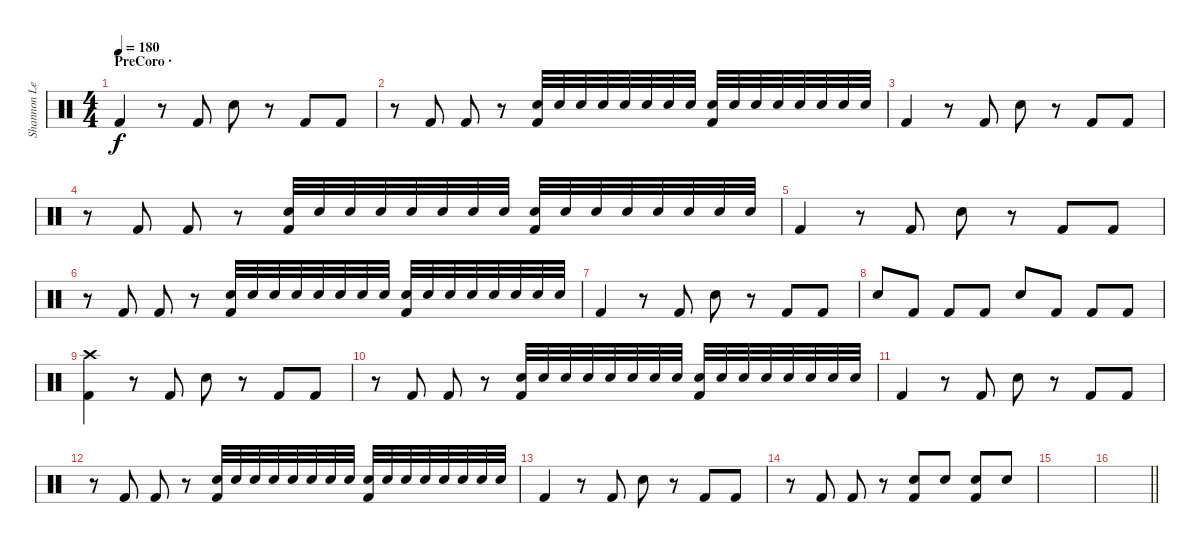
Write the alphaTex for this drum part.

\track ("Shannon Leto" "Shannon Le") {instrument percussion}
\staff {score}
\articulation defaults
\ts (4 4)
\section ("" "PreCoro ·")
\tempo 180
\clef neutral
\ks c "Kick (hit) 2".4{dy f}
r.8 "Kick (hit) 2".8 "Snare (hit) 2".8 r.8 "Kick (hit) 2".8 "Kick (hit) 2".8 |
r.8 "Kick (hit) 2".8 "Kick (hit) 2".8 r.8 ("Snare (hit) 2" "Kick (hit) 2").32 "Snare (hit) 2".32 "Snare (hit) 2".32 "Snare (hit) 2".32 "Snare (hit) 2".32 "Snare (hit) 2".32 "Snare (hit) 2".32 "Snare (hit) 2".32 ("Snare (hit) 2" "Kick (hit) 2").32 "Snare (hit) 2".32 "Snare (hit) 2".32 "Snare (hit) 2".32 "Snare (hit) 2".32 "Snare (hit) 2".32 "Snare (hit) 2".32 "Snare (hit) 2".32 |
"Kick (hit) 2".4 r.8 "Kick (hit) 2".8 "Snare (hit) 2".8 r.8 "Kick (hit) 2".8 "Kick (hit) 2".8 |
r.8 "Kick (hit) 2".8 "Kick (hit) 2".8 r.8 ("Snare (hit) 2" "Kick (hit) 2").32 "Snare (hit) 2".32 "Snare (hit) 2".32 "Snare (hit) 2".32 "Snare (hit) 2".32 "Snare (hit) 2".32 "Snare (hit) 2".32 "Snare (hit) 2".32 ("Snare (hit) 2" "Kick (hit) 2").32 "Snare (hit) 2".32 "Snare (hit) 2".32 "Snare (hit) 2".32 "Snare (hit) 2".32 "Snare (hit) 2".32 "Snare (hit) 2".32 "Snare (hit) 2".32 |
"Kick (hit) 2".4 r.8 "Kick (hit) 2".8 "Snare (hit) 2".8 r.8 "Kick (hit) 2".8 "Kick (hit) 2".8 |
r.8 "Kick (hit) 2".8 "Kick (hit) 2".8 r.8 ("Snare (hit) 2" "Kick (hit) 2").32 "Snare (hit) 2".32 "Snare (hit) 2".32 "Snare (hit) 2".32 "Snare (hit) 2".32 "Snare (hit) 2".32 "Snare (hit) 2".32 "Snare (hit) 2".32 ("Snare (hit) 2" "Kick (hit) 2").32 "Snare (hit) 2".32 "Snare (hit) 2".32 "Snare (hit) 2".32 "Snare (hit) 2".32 "Snare (hit) 2".32 "Snare (hit) 2".32 "Snare (hit) 2".32 |
"Kick (hit) 2".4 r.8 "Kick (hit) 2".8 "Snare (hit) 2".8 r.8 "Kick (hit) 2".8 "Kick (hit) 2".8 |
"Snare (hit) 2".8 "Kick (hit) 2".8 "Kick (hit) 2".8 "Kick (hit) 2".8 "Snare (hit) 2".8 "Kick (hit) 2".8 "Kick (hit) 2".8 "Kick (hit) 2".8 |
("Crash high (hit)" "Kick (hit) 2").4 r.8 "Kick (hit) 2".8 "Snare (hit) 2".8 r.8 "Kick (hit) 2".8 "Kick (hit) 2".8 |
r.8 "Kick (hit) 2".8 "Kick (hit) 2".8 r.8 ("Snare (hit) 2" "Kick (hit) 2").32 "Snare (hit) 2".32 "Snare (hit) 2".32 "Snare (hit) 2".32 "Snare (hit) 2".32 "Snare (hit) 2".32 "Snare (hit) 2".32 "Snare (hit) 2".32 ("Snare (hit) 2" "Kick (hit) 2").32 "Snare (hit) 2".32 "Snare (hit) 2".32 "Snare (hit) 2".32 "Snare (hit) 2".32 "Snare (hit) 2".32 "Snare (hit) 2".32 "Snare (hit) 2".32 |
"Kick (hit) 2".4 r.8 "Kick (hit) 2".8 "Snare (hit) 2".8 r.8 "Kick (hit) 2".8 "Kick (hit) 2".8 |
r.8 "Kick (hit) 2".8 "Kick (hit) 2".8 r.8 ("Snare (hit) 2" "Kick (hit) 2").32 "Snare (hit) 2".32 "Snare (hit) 2".32 "Snare (hit) 2".32 "Snare (hit) 2".32 "Snare (hit) 2".32 "Snare (hit) 2".32 "Snare (hit) 2".32 ("Snare (hit) 2" "Kick (hit) 2").32 "Snare (hit) 2".32 "Snare (hit) 2".32 "Snare (hit) 2".32 "Snare (hit) 2".32 "Snare (hit) 2".32 "Snare (hit) 2".32 "Snare (hit) 2".32 |
"Kick (hit) 2".4 r.8 "Kick (hit) 2".8 "Snare (hit) 2".8 r.8 "Kick (hit) 2".8 "Kick (hit) 2".8 |
r.8 "Kick (hit) 2".8 "Kick (hit) 2".8 r.8 ("Snare (hit) 2" "Kick (hit) 2").8 "Snare (hit) 2".8 ("Snare (hit) 2" "Kick (hit) 2").8 "Snare (hit) 2".8 |
|
\barLineRight lightlight
